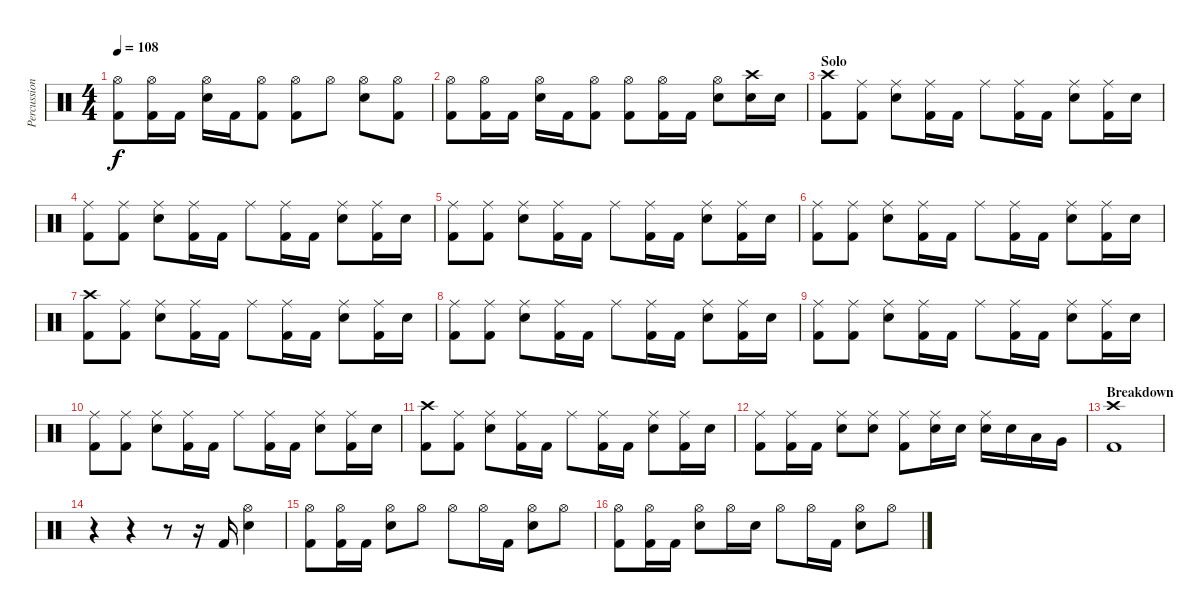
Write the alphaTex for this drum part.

\track ("Percussion" "Percussion") {instrument percussion}
\staff {score}
\articulation defaults
\ts (4 4)
\tempo 108
\clef neutral
\ks c
("Hi-Hat (open)" "Kick (hit) 2").8{dy f} ("Hi-Hat (open)" "Kick (hit) 2").16 "Kick (hit) 2".16 ("Hi-Hat (open)" "Snare (hit) 2").16 "Kick (hit) 2".16 ("Hi-Hat (open)" "Kick (hit) 2").8 ("Hi-Hat (open)" "Kick (hit) 2").8 "Hi-Hat (open)".8 ("Hi-Hat (open)" "Snare (hit) 2").8 ("Hi-Hat (open)" "Kick (hit) 2").8 |
("Hi-Hat (open)" "Kick (hit) 2").8 ("Hi-Hat (open)" "Kick (hit) 2").16 "Kick (hit) 2".16 ("Hi-Hat (open)" "Snare (hit) 2").16 "Kick (hit) 2".16 ("Hi-Hat (open)" "Kick (hit) 2").8 ("Hi-Hat (open)" "Kick (hit) 2").8 ("Hi-Hat (open)" "Kick (hit) 2").16 "Kick (hit) 2".16 ("Hi-Hat (open)" "Snare (hit) 2").8 ("Crash high (hit)" "Snare (hit) 2").16 "Snare (hit) 2".16 |
\section ("" "Solo")
("Crash high (hit)" "Kick (hit) 2").8 ("Ride (middle)" "Kick (hit) 2").8 ("Ride (middle)" "Snare (hit) 2").8 ("Ride (middle)" "Kick (hit) 2").16 "Kick (hit) 2".16 "Ride (middle)".8 ("Ride (middle)" "Kick (hit) 2").16 "Kick (hit) 2".16 ("Ride (middle)" "Snare (hit) 2").8 ("Ride (middle)" "Kick (hit) 2").16 "Snare (hit) 2".16 |
("Ride (middle)" "Kick (hit) 2").8 ("Ride (middle)" "Kick (hit) 2").8 ("Ride (middle)" "Snare (hit) 2").8 ("Ride (middle)" "Kick (hit) 2").16 "Kick (hit) 2".16 "Ride (middle)".8 ("Ride (middle)" "Kick (hit) 2").16 "Kick (hit) 2".16 ("Ride (middle)" "Snare (hit) 2").8 ("Ride (middle)" "Kick (hit) 2").16 "Snare (hit) 2".16 |
("Ride (middle)" "Kick (hit) 2").8 ("Ride (middle)" "Kick (hit) 2").8 ("Ride (middle)" "Snare (hit) 2").8 ("Ride (middle)" "Kick (hit) 2").16 "Kick (hit) 2".16 "Ride (middle)".8 ("Ride (middle)" "Kick (hit) 2").16 "Kick (hit) 2".16 ("Ride (middle)" "Snare (hit) 2").8 ("Ride (middle)" "Kick (hit) 2").16 "Snare (hit) 2".16 |
("Ride (middle)" "Kick (hit) 2").8 ("Ride (middle)" "Kick (hit) 2").8 ("Ride (middle)" "Snare (hit) 2").8 ("Ride (middle)" "Kick (hit) 2").16 "Kick (hit) 2".16 "Ride (middle)".8 ("Ride (middle)" "Kick (hit) 2").16 "Kick (hit) 2".16 ("Ride (middle)" "Snare (hit) 2").8 ("Ride (middle)" "Kick (hit) 2").16 "Snare (hit) 2".16 |
("Crash high (hit)" "Kick (hit) 2").8 ("Ride (middle)" "Kick (hit) 2").8 ("Ride (middle)" "Snare (hit) 2").8 ("Ride (middle)" "Kick (hit) 2").16 "Kick (hit) 2".16 "Ride (middle)".8 ("Ride (middle)" "Kick (hit) 2").16 "Kick (hit) 2".16 ("Ride (middle)" "Snare (hit) 2").8 ("Ride (middle)" "Kick (hit) 2").16 "Snare (hit) 2".16 |
("Ride (middle)" "Kick (hit) 2").8 ("Ride (middle)" "Kick (hit) 2").8 ("Ride (middle)" "Snare (hit) 2").8 ("Ride (middle)" "Kick (hit) 2").16 "Kick (hit) 2".16 "Ride (middle)".8 ("Ride (middle)" "Kick (hit) 2").16 "Kick (hit) 2".16 ("Ride (middle)" "Snare (hit) 2").8 ("Ride (middle)" "Kick (hit) 2").16 "Snare (hit) 2".16 |
("Ride (middle)" "Kick (hit) 2").8 ("Ride (middle)" "Kick (hit) 2").8 ("Ride (middle)" "Snare (hit) 2").8 ("Ride (middle)" "Kick (hit) 2").16 "Kick (hit) 2".16 "Ride (middle)".8 ("Ride (middle)" "Kick (hit) 2").16 "Kick (hit) 2".16 ("Ride (middle)" "Snare (hit) 2").8 ("Ride (middle)" "Kick (hit) 2").16 "Snare (hit) 2".16 |
("Ride (middle)" "Kick (hit) 2").8 ("Ride (middle)" "Kick (hit) 2").8 ("Ride (middle)" "Snare (hit) 2").8 ("Ride (middle)" "Kick (hit) 2").16 "Kick (hit) 2".16 "Ride (middle)".8 ("Ride (middle)" "Kick (hit) 2").16 "Kick (hit) 2".16 ("Ride (middle)" "Snare (hit) 2").8 ("Ride (middle)" "Kick (hit) 2").16 "Snare (hit) 2".16 |
("Crash high (hit)" "Kick (hit) 2").8 ("Ride (middle)" "Kick (hit) 2").8 ("Ride (middle)" "Snare (hit) 2").8 ("Ride (middle)" "Kick (hit) 2").16 "Kick (hit) 2".16 "Ride (middle)".8 ("Ride (middle)" "Kick (hit) 2").16 "Kick (hit) 2".16 ("Ride (middle)" "Snare (hit) 2").8 ("Ride (middle)" "Kick (hit) 2").16 "Snare (hit) 2".16 |
("Ride (middle)" "Kick (hit) 2").8 ("Ride (middle)" "Kick (hit) 2").16 "Kick (hit) 2".16 ("Ride (middle)" "Snare (hit) 2").8 ("Ride (middle)" "Snare (hit) 2").8 ("Ride (middle)" "Kick (hit) 2").8 ("Ride (middle)" "Snare (hit) 2").16 "Snare (hit) 2".16 ("Ride (middle)" "Snare (hit) 2").16 "Snare (hit) 2".16 "Low Tom (hit)".16 "Very Low Tom (hit)".16 |
\section ("" "Breakdown")
("Crash high (hit)" "Kick (hit) 2").1 |
r.4 r.4 r.8 r.16 "Kick (hit) 2".16 ("Hi-Hat (open)" "Snare (hit) 2").4 |
("Hi-Hat (open)" "Kick (hit) 2").8 ("Hi-Hat (open)" "Kick (hit) 2").16 "Kick (hit) 2".16 ("Hi-Hat (open)" "Snare (hit) 2").8 "Hi-Hat (open)".8 "Hi-Hat (open)".8 "Hi-Hat (open)".16 "Kick (hit) 2".16 ("Hi-Hat (open)" "Snare (hit) 2").8 "Hi-Hat (open)".8 |
("Hi-Hat (open)" "Kick (hit) 2").8 ("Hi-Hat (open)" "Kick (hit) 2").16 "Kick (hit) 2".16 ("Hi-Hat (open)" "Snare (hit) 2").8 "Hi-Hat (open)".16 "Snare (hit) 2".16 "Hi-Hat (open)".8 "Hi-Hat (open)".16 "Kick (hit) 2".16 ("Hi-Hat (open)" "Snare (hit) 2").8 "Hi-Hat (open)".8
